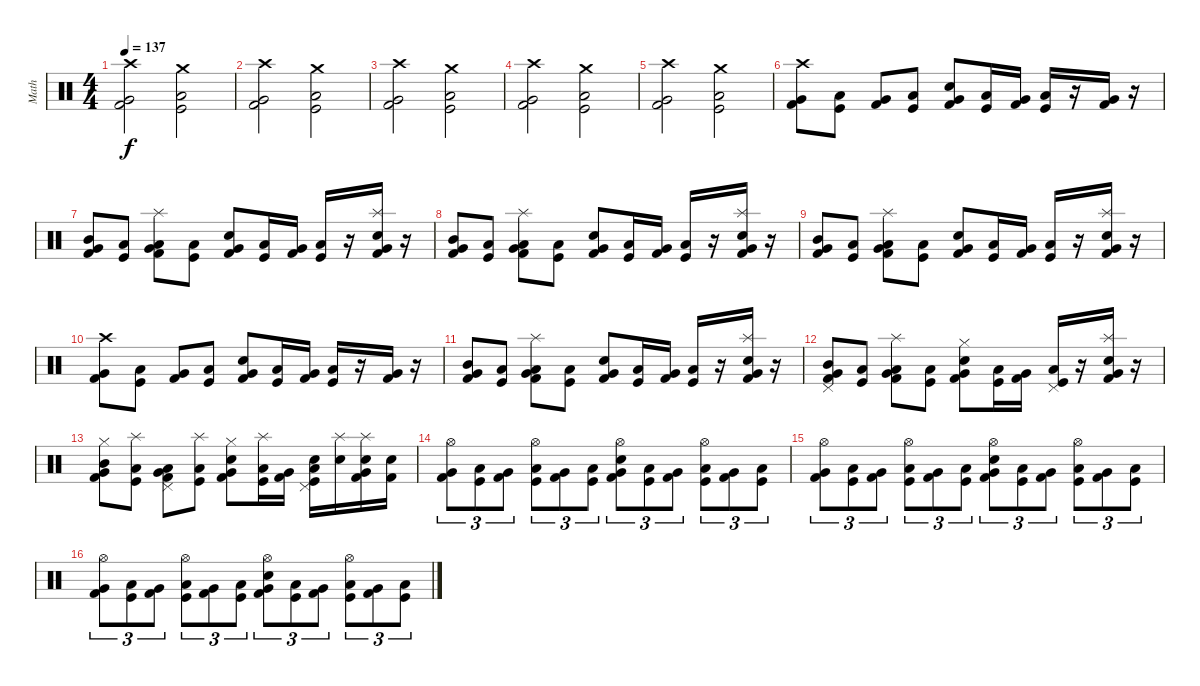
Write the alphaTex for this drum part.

\track ("Math" "Math") {instrument percussion}
\staff {score}
\articulation defaults
\ts (4 4)
\tempo 137
\clef neutral
\ks c
("Crash high (hit)" "Very Low Tom (hit)" "Kick (hit) 2").2{dy f} ("Crash medium (hit)" "Low Tom (hit)" "Kick (hit)").2 |
("Crash high (hit)" "Very Low Tom (hit)" "Kick (hit) 2").2 ("Crash medium (hit)" "Low Tom (hit)" "Kick (hit)").2 |
("Crash high (hit)" "Very Low Tom (hit)" "Kick (hit) 2").2 ("Crash medium (hit)" "Low Tom (hit)" "Kick (hit)").2 |
("Crash high (hit)" "Very Low Tom (hit)" "Kick (hit) 2").2 ("Crash medium (hit)" "Low Tom (hit)" "Kick (hit)").2 |
("Crash high (hit)" "Very Low Tom (hit)" "Kick (hit) 2").2 ("Crash medium (hit)" "Low Tom (hit)" "Kick (hit)").2 |
("Crash high (hit)" "Very Low Tom (hit)" "Kick (hit) 2").8 ("Low Tom (hit)" "Kick (hit)").8 ("Very Low Tom (hit)" "Kick (hit) 2").8 ("Low Tom (hit)" "Kick (hit)").8 ("Snare (hit) 2" "Very Low Tom (hit)" "Kick (hit) 2").8 ("Low Tom (hit)" "Kick (hit)").16 ("Very Low Tom (hit)" "Kick (hit) 2").16 ("Low Tom (hit)" "Kick (hit)").16 r.16 ("Very Low Tom (hit)" "Kick (hit) 2").16 r.16 |
("Mid Tom (hit)" "Very Low Tom (hit)" "Kick (hit) 2").8 ("Low Tom (hit)" "Kick (hit)").8 ("Low Tom (hit)" "Very Low Tom (hit)" "Kick (hit) 2" "Splash (hit)").8 ("Low Tom (hit)" "Kick (hit)").8 ("Electric Snare (hit)" "Very Low Tom (hit)" "Kick (hit) 2").8 ("Low Tom (hit)" "Kick (hit)").16 ("Very Low Tom (hit)" "Kick (hit) 2").16 ("Low Tom (hit)" "Kick (hit)").16 r.16 ("Electric Snare (hit)" "Very Low Tom (hit)" "Kick (hit) 2" "Splash (hit)").16 r.16 |
("Mid Tom (hit)" "Very Low Tom (hit)" "Kick (hit) 2").8 ("Low Tom (hit)" "Kick (hit)").8 ("Low Tom (hit)" "Very Low Tom (hit)" "Kick (hit) 2" "Splash (hit)").8 ("Low Tom (hit)" "Kick (hit)").8 ("Electric Snare (hit)" "Very Low Tom (hit)" "Kick (hit) 2").8 ("Low Tom (hit)" "Kick (hit)").16 ("Very Low Tom (hit)" "Kick (hit) 2").16 ("Low Tom (hit)" "Kick (hit)").16 r.16 ("Electric Snare (hit)" "Very Low Tom (hit)" "Kick (hit) 2" "Splash (hit)").16 r.16 |
("Mid Tom (hit)" "Very Low Tom (hit)" "Kick (hit) 2").8 ("Low Tom (hit)" "Kick (hit)").8 ("Low Tom (hit)" "Very Low Tom (hit)" "Kick (hit) 2" "Splash (hit)").8 ("Low Tom (hit)" "Kick (hit)").8 ("Electric Snare (hit)" "Very Low Tom (hit)" "Kick (hit) 2").8 ("Low Tom (hit)" "Kick (hit)").16 ("Very Low Tom (hit)" "Kick (hit) 2").16 ("Low Tom (hit)" "Kick (hit)").16 r.16 ("Electric Snare (hit)" "Very Low Tom (hit)" "Kick (hit) 2" "Splash (hit)").16 r.16 |
("Crash high (hit)" "Very Low Tom (hit)" "Kick (hit) 2").8 ("Low Tom (hit)" "Kick (hit)").8 ("Very Low Tom (hit)" "Kick (hit) 2").8 ("Low Tom (hit)" "Kick (hit)").8 ("Snare (hit) 2" "Very Low Tom (hit)" "Kick (hit) 2").8 ("Low Tom (hit)" "Kick (hit)").16 ("Very Low Tom (hit)" "Kick (hit) 2").16 ("Low Tom (hit)" "Kick (hit)").16 r.16 ("Very Low Tom (hit)" "Kick (hit) 2").16 r.16 |
("Mid Tom (hit)" "Very Low Tom (hit)" "Kick (hit) 2").8 ("Low Tom (hit)" "Kick (hit)").8 ("Low Tom (hit)" "Very Low Tom (hit)" "Kick (hit) 2" "Splash (hit)").8 ("Low Tom (hit)" "Kick (hit)").8 ("Electric Snare (hit)" "Very Low Tom (hit)" "Kick (hit) 2").8 ("Low Tom (hit)" "Kick (hit)").16 ("Very Low Tom (hit)" "Kick (hit) 2").16 ("Low Tom (hit)" "Kick (hit)").16 r.16 ("Electric Snare (hit)" "Very Low Tom (hit)" "Kick (hit) 2" "Splash (hit)").16 r.16 |
("Mid Tom (hit)" "Very Low Tom (hit)" "Kick (hit) 2" "Pedal Hi-Hat (hit)").8 ("Low Tom (hit)" "Kick (hit)").8 ("Low Tom (hit)" "Very Low Tom (hit)" "Kick (hit) 2" "Splash (hit)").8 ("Low Tom (hit)" "Kick (hit)").8 ("Electric Snare (hit)" "Very Low Tom (hit)" "Kick (hit) 2" "Hi-Hat (closed)").8 ("Low Tom (hit)" "Kick (hit)").16 ("Very Low Tom (hit)" "Kick (hit) 2").16 ("Low Tom (hit)" "Kick (hit)" "Pedal Hi-Hat (hit)").16 r.16 ("Electric Snare (hit)" "Very Low Tom (hit)" "Kick (hit) 2" "Splash (hit)").16 r.16 |
("Mid Tom (hit)" "Very Low Tom (hit)" "Kick (hit) 2" "Hi-Hat (closed)").8 ("Splash (hit)" "Low Tom (hit)" "Kick (hit)").8 ("Low Tom (hit)" "Very Low Tom (hit)" "Kick (hit) 2" "Pedal Hi-Hat (hit)").8 ("Splash (hit)" "Low Tom (hit)" "Kick (hit)").8 ("Electric Snare (hit)" "Very Low Tom (hit)" "Kick (hit) 2" "Hi-Hat (closed)").8 ("Splash (hit)" "Low Tom (hit)" "Kick (hit)").16 ("Very Low Tom (hit)" "Kick (hit) 2").16 ("Low Tom (hit)" "Kick (hit)" "Pedal Hi-Hat (hit)" "Electric Snare (hit)").16 ("Splash (hit)" "Electric Snare (hit)").16 ("Electric Snare (hit)" "Very Low Tom (hit)" "Kick (hit) 2" "Splash (hit)").16 ("Electric Snare (hit)" "Kick (hit) 2").16 |
("Kick (hit) 2" "Very Low Tom (hit)" "Hi-Hat (open)").8{tu (3 2)} ("Kick (hit)" "Low Tom (hit)").8{tu (3 2)} ("Kick (hit) 2" "Very Low Tom (hit)").8{tu (3 2)} ("Kick (hit)" "Low Tom (hit)" "Hi-Hat (open)").8{tu (3 2)} ("Kick (hit) 2" "Very Low Tom (hit)").8{tu (3 2)} ("Kick (hit)" "Low Tom (hit)").8{tu (3 2)} ("Kick (hit) 2" "Very Low Tom (hit)" "Snare (hit) 2" "Hi-Hat (open)").8{tu (3 2)} ("Kick (hit)" "Low Tom (hit)").8{tu (3 2)} ("Kick (hit) 2" "Very Low Tom (hit)").8{tu (3 2)} ("Kick (hit)" "Low Tom (hit)" "Hi-Hat (open)").8{tu (3 2)} ("Kick (hit) 2" "Very Low Tom (hit)").8{tu (3 2)} ("Kick (hit)" "Low Tom (hit)").8{tu (3 2)} |
("Kick (hit) 2" "Very Low Tom (hit)" "Hi-Hat (open)").8{tu (3 2)} ("Kick (hit)" "Low Tom (hit)").8{tu (3 2)} ("Kick (hit) 2" "Very Low Tom (hit)").8{tu (3 2)} ("Kick (hit)" "Low Tom (hit)" "Hi-Hat (open)").8{tu (3 2)} ("Kick (hit) 2" "Very Low Tom (hit)").8{tu (3 2)} ("Kick (hit)" "Low Tom (hit)").8{tu (3 2)} ("Kick (hit) 2" "Very Low Tom (hit)" "Snare (hit) 2" "Hi-Hat (open)").8{tu (3 2)} ("Kick (hit)" "Low Tom (hit)").8{tu (3 2)} ("Kick (hit) 2" "Very Low Tom (hit)").8{tu (3 2)} ("Kick (hit)" "Low Tom (hit)" "Hi-Hat (open)").8{tu (3 2)} ("Kick (hit) 2" "Very Low Tom (hit)").8{tu (3 2)} ("Kick (hit)" "Low Tom (hit)").8{tu (3 2)} |
("Kick (hit) 2" "Very Low Tom (hit)" "Hi-Hat (open)").8{tu (3 2)} ("Kick (hit)" "Low Tom (hit)").8{tu (3 2)} ("Kick (hit) 2" "Very Low Tom (hit)").8{tu (3 2)} ("Kick (hit)" "Low Tom (hit)" "Hi-Hat (open)").8{tu (3 2)} ("Kick (hit) 2" "Very Low Tom (hit)").8{tu (3 2)} ("Kick (hit)" "Low Tom (hit)").8{tu (3 2)} ("Kick (hit) 2" "Very Low Tom (hit)" "Snare (hit) 2" "Hi-Hat (open)").8{tu (3 2)} ("Kick (hit)" "Low Tom (hit)").8{tu (3 2)} ("Kick (hit) 2" "Very Low Tom (hit)").8{tu (3 2)} ("Kick (hit)" "Low Tom (hit)" "Hi-Hat (open)").8{tu (3 2)} ("Kick (hit) 2" "Very Low Tom (hit)").8{tu (3 2)} ("Kick (hit)" "Low Tom (hit)").8{tu (3 2)}
